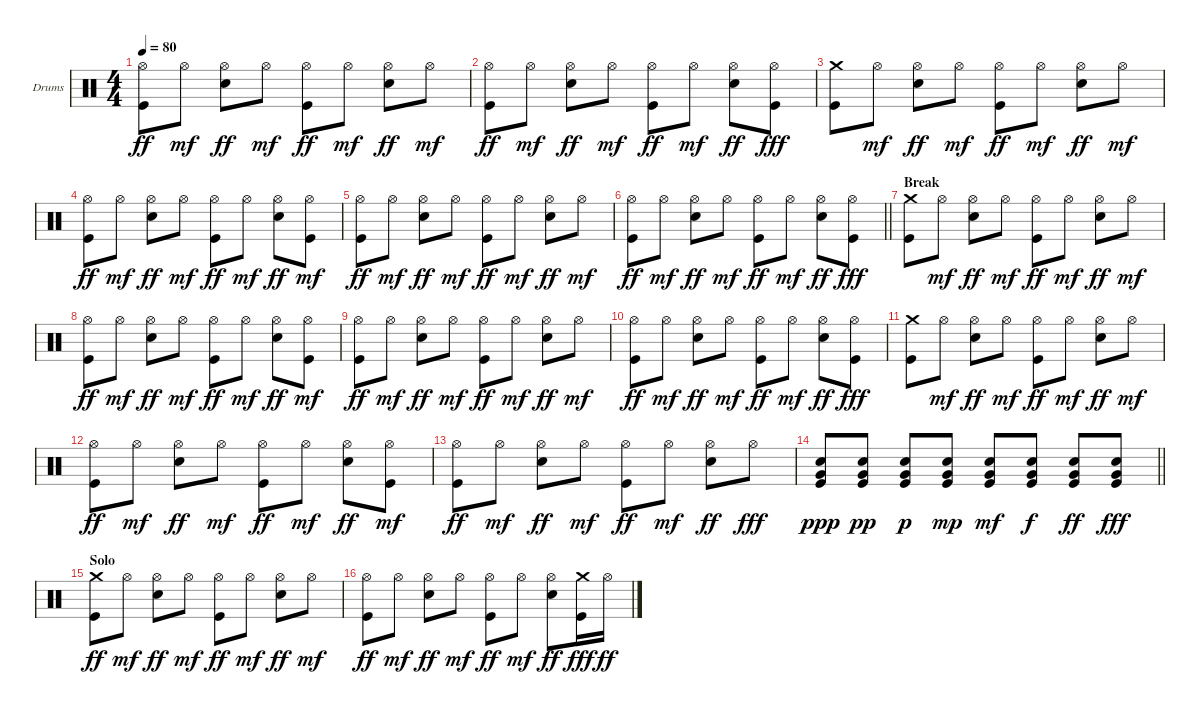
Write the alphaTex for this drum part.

\bracketExtendMode groupsimilarinstruments
\firstSystemTrackNameOrientation horizontal
\otherSystemsTrackNameOrientation horizontal
\track ("Drumkit" "Drums") {instrument percussion}
\staff {score}
\articulation defaults
\ts (4 4)
\tempo 80
\clef neutral
\ks c
("Hi-Hat (open)" "Kick (hit)").8{dy ff} "Hi-Hat (open)".8{dy mf} ("Hi-Hat (open)" "Snare (hit) 2").8{dy ff} "Hi-Hat (open)".8{dy mf} ("Hi-Hat (open)" "Kick (hit)").8{dy ff} "Hi-Hat (open)".8{dy mf} ("Hi-Hat (open)" "Snare (hit) 2").8{dy ff} "Hi-Hat (open)".8{dy mf} |
("Hi-Hat (open)" "Kick (hit)").8{dy ff} "Hi-Hat (open)".8{dy mf} ("Hi-Hat (open)" "Snare (hit) 2").8{dy ff} "Hi-Hat (open)".8{dy mf} ("Hi-Hat (open)" "Kick (hit)").8{dy ff} "Hi-Hat (open)".8{dy mf} ("Hi-Hat (open)" "Snare (hit) 2").8{dy ff} ("Hi-Hat (open)" "Kick (hit)").8{dy fff} |
("Crash medium (hit)" "Kick (hit)").8 "Hi-Hat (open)".8{dy mf} ("Hi-Hat (open)" "Snare (hit) 2").8{dy ff} "Hi-Hat (open)".8{dy mf} ("Hi-Hat (open)" "Kick (hit)").8{dy ff} "Hi-Hat (open)".8{dy mf} ("Hi-Hat (open)" "Snare (hit) 2").8{dy ff} "Hi-Hat (open)".8{dy mf} |
("Hi-Hat (open)" "Kick (hit)").8{dy ff} "Hi-Hat (open)".8{dy mf} ("Hi-Hat (open)" "Snare (hit) 2").8{dy ff} "Hi-Hat (open)".8{dy mf} ("Hi-Hat (open)" "Kick (hit)").8{dy ff} "Hi-Hat (open)".8{dy mf} ("Hi-Hat (open)" "Snare (hit) 2").8{dy ff} ("Hi-Hat (open)" "Kick (hit)").8{dy mf} |
("Hi-Hat (open)" "Kick (hit)").8{dy ff} "Hi-Hat (open)".8{dy mf} ("Hi-Hat (open)" "Snare (hit) 2").8{dy ff} "Hi-Hat (open)".8{dy mf} ("Hi-Hat (open)" "Kick (hit)").8{dy ff} "Hi-Hat (open)".8{dy mf} ("Hi-Hat (open)" "Snare (hit) 2").8{dy ff} "Hi-Hat (open)".8{dy mf} |
\barLineRight lightlight
("Hi-Hat (open)" "Kick (hit)").8{dy ff} "Hi-Hat (open)".8{dy mf} ("Hi-Hat (open)" "Snare (hit) 2").8{dy ff} "Hi-Hat (open)".8{dy mf} ("Hi-Hat (open)" "Kick (hit)").8{dy ff} "Hi-Hat (open)".8{dy mf} ("Hi-Hat (open)" "Snare (hit) 2").8{dy ff} ("Hi-Hat (open)" "Kick (hit)").8{dy fff} |
\section ("" "Break")
("Crash medium (hit)" "Kick (hit)").8 "Hi-Hat (open)".8{dy mf} ("Hi-Hat (open)" "Snare (hit) 2").8{dy ff} "Hi-Hat (open)".8{dy mf} ("Hi-Hat (open)" "Kick (hit)").8{dy ff} "Hi-Hat (open)".8{dy mf} ("Hi-Hat (open)" "Snare (hit) 2").8{dy ff} "Hi-Hat (open)".8{dy mf} |
("Hi-Hat (open)" "Kick (hit)").8{dy ff} "Hi-Hat (open)".8{dy mf} ("Hi-Hat (open)" "Snare (hit) 2").8{dy ff} "Hi-Hat (open)".8{dy mf} ("Hi-Hat (open)" "Kick (hit)").8{dy ff} "Hi-Hat (open)".8{dy mf} ("Hi-Hat (open)" "Snare (hit) 2").8{dy ff} ("Hi-Hat (open)" "Kick (hit)").8{dy mf} |
("Hi-Hat (open)" "Kick (hit)").8{dy ff} "Hi-Hat (open)".8{dy mf} ("Hi-Hat (open)" "Snare (hit) 2").8{dy ff} "Hi-Hat (open)".8{dy mf} ("Hi-Hat (open)" "Kick (hit)").8{dy ff} "Hi-Hat (open)".8{dy mf} ("Hi-Hat (open)" "Snare (hit) 2").8{dy ff} "Hi-Hat (open)".8{dy mf} |
("Hi-Hat (open)" "Kick (hit)").8{dy ff} "Hi-Hat (open)".8{dy mf} ("Hi-Hat (open)" "Snare (hit) 2").8{dy ff} "Hi-Hat (open)".8{dy mf} ("Hi-Hat (open)" "Kick (hit)").8{dy ff} "Hi-Hat (open)".8{dy mf} ("Hi-Hat (open)" "Snare (hit) 2").8{dy ff} ("Hi-Hat (open)" "Kick (hit)").8{dy fff} |
("Crash medium (hit)" "Kick (hit)").8 "Hi-Hat (open)".8{dy mf} ("Hi-Hat (open)" "Snare (hit) 2").8{dy ff} "Hi-Hat (open)".8{dy mf} ("Hi-Hat (open)" "Kick (hit)").8{dy ff} "Hi-Hat (open)".8{dy mf} ("Hi-Hat (open)" "Snare (hit) 2").8{dy ff} "Hi-Hat (open)".8{dy mf} |
("Hi-Hat (open)" "Kick (hit)").8{dy ff} "Hi-Hat (open)".8{dy mf} ("Hi-Hat (open)" "Snare (hit) 2").8{dy ff} "Hi-Hat (open)".8{dy mf} ("Hi-Hat (open)" "Kick (hit)").8{dy ff} "Hi-Hat (open)".8{dy mf} ("Hi-Hat (open)" "Snare (hit) 2").8{dy ff} ("Hi-Hat (open)" "Kick (hit)").8{dy mf} |
("Hi-Hat (open)" "Kick (hit)").8{dy ff} "Hi-Hat (open)".8{dy mf} ("Hi-Hat (open)" "Snare (hit) 2").8{dy ff} "Hi-Hat (open)".8{dy mf} ("Hi-Hat (open)" "Kick (hit)").8{dy ff} "Hi-Hat (open)".8{dy mf} ("Hi-Hat (open)" "Snare (hit) 2").8{dy ff} "Hi-Hat (open)".8{dy fff} |
\barLineRight lightlight
("Very Low Tom (hit)" "Snare (hit) 2" "Kick (hit)").8{dy ppp} ("Very Low Tom (hit)" "Snare (hit) 2" "Kick (hit)").8{dy pp} ("Very Low Tom (hit)" "Snare (hit) 2" "Kick (hit)").8{dy p} ("Very Low Tom (hit)" "Snare (hit) 2" "Kick (hit)").8{dy mp} ("Very Low Tom (hit)" "Snare (hit) 2" "Kick (hit)").8{dy mf} ("Very Low Tom (hit)" "Snare (hit) 2" "Kick (hit)").8{dy f} ("Very Low Tom (hit)" "Snare (hit) 2" "Kick (hit)").8{dy ff} ("Very Low Tom (hit)" "Snare (hit) 2" "Kick (hit)").8{dy fff} |
\section ("" "Solo")
("Crash medium (hit)" "Kick (hit)").8{dy ff} "Hi-Hat (open)".8{dy mf} ("Hi-Hat (open)" "Snare (hit) 2").8{dy ff} "Hi-Hat (open)".8{dy mf} ("Hi-Hat (open)" "Kick (hit)").8{dy ff} "Hi-Hat (open)".8{dy mf} ("Hi-Hat (open)" "Snare (hit) 2").8{dy ff} "Hi-Hat (open)".8{dy mf} |
("Hi-Hat (open)" "Kick (hit)").8{dy ff} "Hi-Hat (open)".8{dy mf} ("Hi-Hat (open)" "Snare (hit) 2").8{dy ff} "Hi-Hat (open)".8{dy mf} ("Hi-Hat (open)" "Kick (hit)").8{dy ff} "Hi-Hat (open)".8{dy mf} ("Hi-Hat (open)" "Snare (hit) 2").8{dy ff} ("Crash medium (hit)" "Kick (hit)").16{dy fff} "Hi-Hat (open)".16{dy ff}
